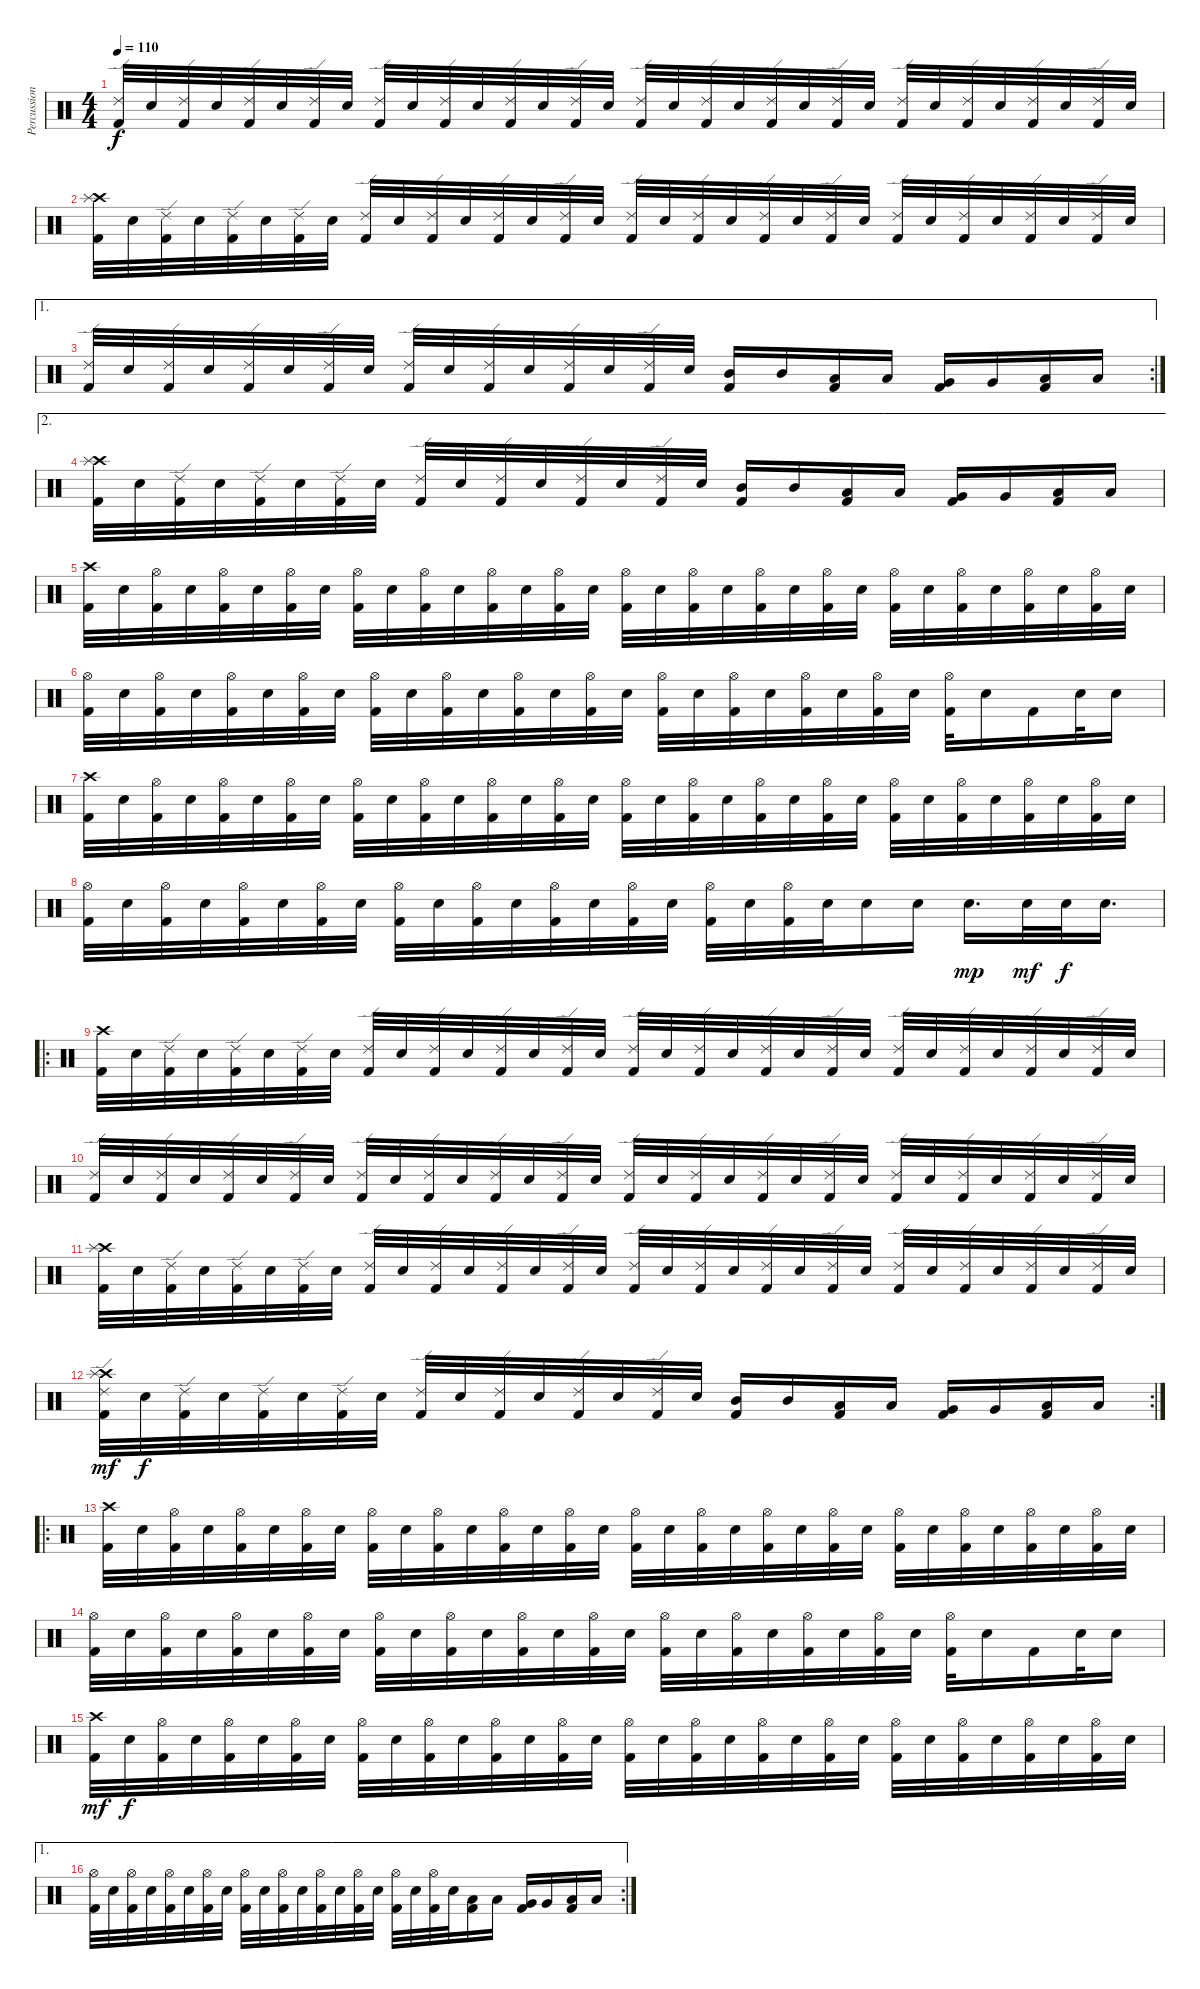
\track ("Percussion" "Percussion") {instrument percussion}
\staff {score}
\articulation defaults
\ts (4 4)
\tempo 110
\clef neutral
\ks c
("Ride (edge) 2" "Kick (hit) 2").32{dy f} "Snare (hit) 2".32 ("Ride (edge) 2" "Kick (hit) 2").32 "Snare (hit) 2".32 ("Ride (edge) 2" "Kick (hit) 2").32 "Snare (hit) 2".32 ("Ride (edge) 2" "Kick (hit) 2").32 "Snare (hit) 2".32 ("Ride (edge) 2" "Kick (hit) 2").32 "Snare (hit) 2".32 ("Ride (edge) 2" "Kick (hit) 2").32 "Snare (hit) 2".32 ("Ride (edge) 2" "Kick (hit) 2").32 "Snare (hit) 2".32 ("Ride (edge) 2" "Kick (hit) 2").32 "Snare (hit) 2".32 ("Ride (edge) 2" "Kick (hit) 2").32 "Snare (hit) 2".32 ("Ride (edge) 2" "Kick (hit) 2").32 "Snare (hit) 2".32 ("Ride (edge) 2" "Kick (hit) 2").32 "Snare (hit) 2".32 ("Ride (edge) 2" "Kick (hit) 2").32 "Snare (hit) 2".32 ("Ride (edge) 2" "Kick (hit) 2").32 "Snare (hit) 2".32 ("Ride (edge) 2" "Kick (hit) 2").32 "Snare (hit) 2".32 ("Ride (edge) 2" "Kick (hit) 2").32 "Snare (hit) 2".32 ("Ride (edge) 2" "Kick (hit) 2").32 "Snare (hit) 2".32 |
("Crash high (hit)" "Splash (hit)" "Kick (hit) 2").32 "Snare (hit) 2".32 ("Ride (edge) 2" "Kick (hit) 2").32 "Snare (hit) 2".32 ("Ride (edge) 2" "Kick (hit) 2").32 "Snare (hit) 2".32 ("Ride (edge) 2" "Kick (hit) 2").32 "Snare (hit) 2".32 ("Ride (edge) 2" "Kick (hit) 2").32 "Snare (hit) 2".32 ("Ride (edge) 2" "Kick (hit) 2").32 "Snare (hit) 2".32 ("Ride (edge) 2" "Kick (hit) 2").32 "Snare (hit) 2".32 ("Ride (edge) 2" "Kick (hit) 2").32 "Snare (hit) 2".32 ("Ride (edge) 2" "Kick (hit) 2").32 "Snare (hit) 2".32 ("Ride (edge) 2" "Kick (hit) 2").32 "Snare (hit) 2".32 ("Ride (edge) 2" "Kick (hit) 2").32 "Snare (hit) 2".32 ("Ride (edge) 2" "Kick (hit) 2").32 "Snare (hit) 2".32 ("Ride (edge) 2" "Kick (hit) 2").32 "Snare (hit) 2".32 ("Ride (edge) 2" "Kick (hit) 2").32 "Snare (hit) 2".32 ("Ride (edge) 2" "Kick (hit) 2").32 "Snare (hit) 2".32 ("Ride (edge) 2" "Kick (hit) 2").32 "Snare (hit) 2".32 |
\ae 1
\rc 2
("Ride (edge) 2" "Kick (hit) 2").32 "Snare (hit) 2".32 ("Ride (edge) 2" "Kick (hit) 2").32 "Snare (hit) 2".32 ("Ride (edge) 2" "Kick (hit) 2").32 "Snare (hit) 2".32 ("Ride (edge) 2" "Kick (hit) 2").32 "Snare (hit) 2".32 ("Ride (edge) 2" "Kick (hit) 2").32 "Snare (hit) 2".32 ("Ride (edge) 2" "Kick (hit) 2").32 "Snare (hit) 2".32 ("Ride (edge) 2" "Kick (hit) 2").32 "Snare (hit) 2".32 ("Ride (edge) 2" "Kick (hit) 2").32 "Snare (hit) 2".32 ("Mid Tom (hit)" "Kick (hit) 2").16 "Mid Tom (hit)".16 ("Low Tom (hit)" "Kick (hit) 2").16 "Low Tom (hit)".16 ("Very Low Tom (hit)" "Kick (hit) 2").16 "Very Low Tom (hit)".16 ("Low Floor Tom (hit)" "Kick (hit) 2").16 "Low Floor Tom (hit)".16 |
\ae 2
("Crash high (hit)" "Splash (hit)" "Kick (hit) 2").32 "Snare (hit) 2".32 ("Ride (edge) 2" "Kick (hit) 2").32 "Snare (hit) 2".32 ("Ride (edge) 2" "Kick (hit) 2").32 "Snare (hit) 2".32 ("Ride (edge) 2" "Kick (hit) 2").32 "Snare (hit) 2".32 ("Ride (edge) 2" "Kick (hit) 2").32 "Snare (hit) 2".32 ("Ride (edge) 2" "Kick (hit) 2").32 "Snare (hit) 2".32 ("Ride (edge) 2" "Kick (hit) 2").32 "Snare (hit) 2".32 ("Ride (edge) 2" "Kick (hit) 2").32 "Snare (hit) 2".32 ("Mid Tom (hit)" "Kick (hit) 2").16 "Mid Tom (hit)".16 ("Low Tom (hit)" "Kick (hit) 2").16 "Low Tom (hit)".16 ("Very Low Tom (hit)" "Kick (hit) 2").16 "Very Low Tom (hit)".16 ("Low Floor Tom (hit)" "Kick (hit) 2").16 "Low Floor Tom (hit)".16 |
("Crash high (hit)" "Kick (hit) 2").32 "Snare (hit) 2".32 ("Hi-Hat (open)" "Kick (hit) 2").32 "Snare (hit) 2".32 ("Hi-Hat (open)" "Kick (hit) 2").32 "Snare (hit) 2".32 ("Hi-Hat (open)" "Kick (hit) 2").32 "Snare (hit) 2".32 ("Hi-Hat (open)" "Kick (hit) 2").32 "Snare (hit) 2".32 ("Hi-Hat (open)" "Kick (hit) 2").32 "Snare (hit) 2".32 ("Hi-Hat (open)" "Kick (hit) 2").32 "Snare (hit) 2".32 ("Hi-Hat (open)" "Kick (hit) 2").32 "Snare (hit) 2".32 ("Hi-Hat (open)" "Kick (hit) 2").32 "Snare (hit) 2".32 ("Hi-Hat (open)" "Kick (hit) 2").32 "Snare (hit) 2".32 ("Hi-Hat (open)" "Kick (hit) 2").32 "Snare (hit) 2".32 ("Hi-Hat (open)" "Kick (hit) 2").32 "Snare (hit) 2".32 ("Hi-Hat (open)" "Kick (hit) 2").32 "Snare (hit) 2".32 ("Hi-Hat (open)" "Kick (hit) 2").32 "Snare (hit) 2".32 ("Hi-Hat (open)" "Kick (hit) 2").32 "Snare (hit) 2".32 ("Hi-Hat (open)" "Kick (hit) 2").32 "Snare (hit) 2".32 |
("Hi-Hat (open)" "Kick (hit) 2").32 "Snare (hit) 2".32 ("Hi-Hat (open)" "Kick (hit) 2").32 "Snare (hit) 2".32 ("Hi-Hat (open)" "Kick (hit) 2").32 "Snare (hit) 2".32 ("Hi-Hat (open)" "Kick (hit) 2").32 "Snare (hit) 2".32 ("Hi-Hat (open)" "Kick (hit) 2").32 "Snare (hit) 2".32 ("Hi-Hat (open)" "Kick (hit) 2").32 "Snare (hit) 2".32 ("Hi-Hat (open)" "Kick (hit) 2").32 "Snare (hit) 2".32 ("Hi-Hat (open)" "Kick (hit) 2").32 "Snare (hit) 2".32 ("Hi-Hat (open)" "Kick (hit) 2").32 "Snare (hit) 2".32 ("Hi-Hat (open)" "Kick (hit) 2").32 "Snare (hit) 2".32 ("Hi-Hat (open)" "Kick (hit) 2").32 "Snare (hit) 2".32 ("Hi-Hat (open)" "Kick (hit) 2").32 "Snare (hit) 2".32 ("Hi-Hat (open)" "Kick (hit) 2").32 "Snare (hit) 2".16 "Kick (hit) 2".16 "Snare (hit) 2".32 "Snare (hit) 2".16 |
("Crash high (hit)" "Kick (hit) 2").32 "Snare (hit) 2".32 ("Hi-Hat (open)" "Kick (hit) 2").32 "Snare (hit) 2".32 ("Hi-Hat (open)" "Kick (hit) 2").32 "Snare (hit) 2".32 ("Hi-Hat (open)" "Kick (hit) 2").32 "Snare (hit) 2".32 ("Hi-Hat (open)" "Kick (hit) 2").32 "Snare (hit) 2".32 ("Hi-Hat (open)" "Kick (hit) 2").32 "Snare (hit) 2".32 ("Hi-Hat (open)" "Kick (hit) 2").32 "Snare (hit) 2".32 ("Hi-Hat (open)" "Kick (hit) 2").32 "Snare (hit) 2".32 ("Hi-Hat (open)" "Kick (hit) 2").32 "Snare (hit) 2".32 ("Hi-Hat (open)" "Kick (hit) 2").32 "Snare (hit) 2".32 ("Hi-Hat (open)" "Kick (hit) 2").32 "Snare (hit) 2".32 ("Hi-Hat (open)" "Kick (hit) 2").32 "Snare (hit) 2".32 ("Hi-Hat (open)" "Kick (hit) 2").32 "Snare (hit) 2".32 ("Hi-Hat (open)" "Kick (hit) 2").32 "Snare (hit) 2".32 ("Hi-Hat (open)" "Kick (hit) 2").32 "Snare (hit) 2".32 ("Hi-Hat (open)" "Kick (hit) 2").32 "Snare (hit) 2".32 |
("Hi-Hat (open)" "Kick (hit) 2").32 "Snare (hit) 2".32 ("Hi-Hat (open)" "Kick (hit) 2").32 "Snare (hit) 2".32 ("Hi-Hat (open)" "Kick (hit) 2").32 "Snare (hit) 2".32 ("Hi-Hat (open)" "Kick (hit) 2").32 "Snare (hit) 2".32 ("Hi-Hat (open)" "Kick (hit) 2").32 "Snare (hit) 2".32 ("Hi-Hat (open)" "Kick (hit) 2").32 "Snare (hit) 2".32 ("Hi-Hat (open)" "Kick (hit) 2").32 "Snare (hit) 2".32 ("Hi-Hat (open)" "Kick (hit) 2").32 "Snare (hit) 2".32 ("Hi-Hat (open)" "Kick (hit) 2").32 "Snare (hit) 2".32 ("Hi-Hat (open)" "Kick (hit) 2").32 "Snare (hit) 2".32 "Snare (hit) 2".16 "Snare (hit) 2".16 "Snare (hit) 2".16{d dy mp} "Snare (hit) 2".32{dy mf} "Snare (hit) 2".32{dy f} "Snare (hit) 2".16{d} |
\ro
("Crash high (hit)" "Kick (hit) 2").32 "Snare (hit) 2".32 ("Ride (edge) 2" "Kick (hit) 2").32 "Snare (hit) 2".32 ("Ride (edge) 2" "Kick (hit) 2").32 "Snare (hit) 2".32 ("Ride (edge) 2" "Kick (hit) 2").32 "Snare (hit) 2".32 ("Ride (edge) 2" "Kick (hit) 2").32 "Snare (hit) 2".32 ("Ride (edge) 2" "Kick (hit) 2").32 "Snare (hit) 2".32 ("Ride (edge) 2" "Kick (hit) 2").32 "Snare (hit) 2".32 ("Ride (edge) 2" "Kick (hit) 2").32 "Snare (hit) 2".32 ("Ride (edge) 2" "Kick (hit) 2").32 "Snare (hit) 2".32 ("Ride (edge) 2" "Kick (hit) 2").32 "Snare (hit) 2".32 ("Ride (edge) 2" "Kick (hit) 2").32 "Snare (hit) 2".32 ("Ride (edge) 2" "Kick (hit) 2").32 "Snare (hit) 2".32 ("Ride (edge) 2" "Kick (hit) 2").32 "Snare (hit) 2".32 ("Ride (edge) 2" "Kick (hit) 2").32 "Snare (hit) 2".32 ("Ride (edge) 2" "Kick (hit) 2").32 "Snare (hit) 2".32 ("Ride (edge) 2" "Kick (hit) 2").32 "Snare (hit) 2".32 |
("Ride (edge) 2" "Kick (hit) 2").32 "Snare (hit) 2".32 ("Ride (edge) 2" "Kick (hit) 2").32 "Snare (hit) 2".32 ("Ride (edge) 2" "Kick (hit) 2").32 "Snare (hit) 2".32 ("Ride (edge) 2" "Kick (hit) 2").32 "Snare (hit) 2".32 ("Ride (edge) 2" "Kick (hit) 2").32 "Snare (hit) 2".32 ("Ride (edge) 2" "Kick (hit) 2").32 "Snare (hit) 2".32 ("Ride (edge) 2" "Kick (hit) 2").32 "Snare (hit) 2".32 ("Ride (edge) 2" "Kick (hit) 2").32 "Snare (hit) 2".32 ("Ride (edge) 2" "Kick (hit) 2").32 "Snare (hit) 2".32 ("Ride (edge) 2" "Kick (hit) 2").32 "Snare (hit) 2".32 ("Ride (edge) 2" "Kick (hit) 2").32 "Snare (hit) 2".32 ("Ride (edge) 2" "Kick (hit) 2").32 "Snare (hit) 2".32 ("Ride (edge) 2" "Kick (hit) 2").32 "Snare (hit) 2".32 ("Ride (edge) 2" "Kick (hit) 2").32 "Snare (hit) 2".32 ("Ride (edge) 2" "Kick (hit) 2").32 "Snare (hit) 2".32 ("Ride (edge) 2" "Kick (hit) 2").32 "Snare (hit) 2".32 |
("Crash high (hit)" "Splash (hit)" "Kick (hit) 2").32 "Snare (hit) 2".32 ("Ride (edge) 2" "Kick (hit) 2").32 "Snare (hit) 2".32 ("Ride (edge) 2" "Kick (hit) 2").32 "Snare (hit) 2".32 ("Ride (edge) 2" "Kick (hit) 2").32 "Snare (hit) 2".32 ("Ride (edge) 2" "Kick (hit) 2").32 "Snare (hit) 2".32 ("Ride (edge) 2" "Kick (hit) 2").32 "Snare (hit) 2".32 ("Ride (edge) 2" "Kick (hit) 2").32 "Snare (hit) 2".32 ("Ride (edge) 2" "Kick (hit) 2").32 "Snare (hit) 2".32 ("Ride (edge) 2" "Kick (hit) 2").32 "Snare (hit) 2".32 ("Ride (edge) 2" "Kick (hit) 2").32 "Snare (hit) 2".32 ("Ride (edge) 2" "Kick (hit) 2").32 "Snare (hit) 2".32 ("Ride (edge) 2" "Kick (hit) 2").32 "Snare (hit) 2".32 ("Ride (edge) 2" "Kick (hit) 2").32 "Snare (hit) 2".32 ("Ride (edge) 2" "Kick (hit) 2").32 "Snare (hit) 2".32 ("Ride (edge) 2" "Kick (hit) 2").32 "Snare (hit) 2".32 ("Ride (edge) 2" "Kick (hit) 2").32 "Snare (hit) 2".32 |
\rc 2
("Crash high (hit)" "Splash (hit)" "Ride (edge) 2" "Kick (hit) 2").32{dy mf} "Snare (hit) 2".32{dy f} ("Ride (edge) 2" "Kick (hit) 2").32 "Snare (hit) 2".32 ("Ride (edge) 2" "Kick (hit) 2").32 "Snare (hit) 2".32 ("Ride (edge) 2" "Kick (hit) 2").32 "Snare (hit) 2".32 ("Ride (edge) 2" "Kick (hit) 2").32 "Snare (hit) 2".32 ("Ride (edge) 2" "Kick (hit) 2").32 "Snare (hit) 2".32 ("Ride (edge) 2" "Kick (hit) 2").32 "Snare (hit) 2".32 ("Ride (edge) 2" "Kick (hit) 2").32 "Snare (hit) 2".32 ("Mid Tom (hit)" "Kick (hit) 2").16 "Mid Tom (hit)".16 ("Low Tom (hit)" "Kick (hit) 2").16 "Low Tom (hit)".16 ("Very Low Tom (hit)" "Kick (hit) 2").16 "Very Low Tom (hit)".16 ("Low Floor Tom (hit)" "Kick (hit) 2").16 "Low Floor Tom (hit)".16 |
\ro
("Crash high (hit)" "Kick (hit) 2").32 "Snare (hit) 2".32 ("Hi-Hat (open)" "Kick (hit) 2").32 "Snare (hit) 2".32 ("Hi-Hat (open)" "Kick (hit) 2").32 "Snare (hit) 2".32 ("Hi-Hat (open)" "Kick (hit) 2").32 "Snare (hit) 2".32 ("Hi-Hat (open)" "Kick (hit) 2").32 "Snare (hit) 2".32 ("Hi-Hat (open)" "Kick (hit) 2").32 "Snare (hit) 2".32 ("Hi-Hat (open)" "Kick (hit) 2").32 "Snare (hit) 2".32 ("Hi-Hat (open)" "Kick (hit) 2").32 "Snare (hit) 2".32 ("Hi-Hat (open)" "Kick (hit) 2").32 "Snare (hit) 2".32 ("Hi-Hat (open)" "Kick (hit) 2").32 "Snare (hit) 2".32 ("Hi-Hat (open)" "Kick (hit) 2").32 "Snare (hit) 2".32 ("Hi-Hat (open)" "Kick (hit) 2").32 "Snare (hit) 2".32 ("Hi-Hat (open)" "Kick (hit) 2").32 "Snare (hit) 2".32 ("Hi-Hat (open)" "Kick (hit) 2").32 "Snare (hit) 2".32 ("Hi-Hat (open)" "Kick (hit) 2").32 "Snare (hit) 2".32 ("Hi-Hat (open)" "Kick (hit) 2").32 "Snare (hit) 2".32 |
("Hi-Hat (open)" "Kick (hit) 2").32 "Snare (hit) 2".32 ("Hi-Hat (open)" "Kick (hit) 2").32 "Snare (hit) 2".32 ("Hi-Hat (open)" "Kick (hit) 2").32 "Snare (hit) 2".32 ("Hi-Hat (open)" "Kick (hit) 2").32 "Snare (hit) 2".32 ("Hi-Hat (open)" "Kick (hit) 2").32 "Snare (hit) 2".32 ("Hi-Hat (open)" "Kick (hit) 2").32 "Snare (hit) 2".32 ("Hi-Hat (open)" "Kick (hit) 2").32 "Snare (hit) 2".32 ("Hi-Hat (open)" "Kick (hit) 2").32 "Snare (hit) 2".32 ("Hi-Hat (open)" "Kick (hit) 2").32 "Snare (hit) 2".32 ("Hi-Hat (open)" "Kick (hit) 2").32 "Snare (hit) 2".32 ("Hi-Hat (open)" "Kick (hit) 2").32 "Snare (hit) 2".32 ("Hi-Hat (open)" "Kick (hit) 2").32 "Snare (hit) 2".32 ("Hi-Hat (open)" "Kick (hit) 2").32 "Snare (hit) 2".16 "Kick (hit) 2".16 "Snare (hit) 2".32 "Snare (hit) 2".16 |
("Crash high (hit)" "Kick (hit) 2").32{dy mf} "Snare (hit) 2".32{dy f} ("Hi-Hat (open)" "Kick (hit) 2").32 "Snare (hit) 2".32 ("Hi-Hat (open)" "Kick (hit) 2").32 "Snare (hit) 2".32 ("Hi-Hat (open)" "Kick (hit) 2").32 "Snare (hit) 2".32 ("Hi-Hat (open)" "Kick (hit) 2").32 "Snare (hit) 2".32 ("Hi-Hat (open)" "Kick (hit) 2").32 "Snare (hit) 2".32 ("Hi-Hat (open)" "Kick (hit) 2").32 "Snare (hit) 2".32 ("Hi-Hat (open)" "Kick (hit) 2").32 "Snare (hit) 2".32 ("Hi-Hat (open)" "Kick (hit) 2").32 "Snare (hit) 2".32 ("Hi-Hat (open)" "Kick (hit) 2").32 "Snare (hit) 2".32 ("Hi-Hat (open)" "Kick (hit) 2").32 "Snare (hit) 2".32 ("Hi-Hat (open)" "Kick (hit) 2").32 "Snare (hit) 2".32 ("Hi-Hat (open)" "Kick (hit) 2").32 "Snare (hit) 2".32 ("Hi-Hat (open)" "Kick (hit) 2").32 "Snare (hit) 2".32 ("Hi-Hat (open)" "Kick (hit) 2").32 "Snare (hit) 2".32 ("Hi-Hat (open)" "Kick (hit) 2").32 "Snare (hit) 2".32 |
\ae 1
\rc 2
("Hi-Hat (open)" "Kick (hit) 2").32 "Snare (hit) 2".32 ("Hi-Hat (open)" "Kick (hit) 2").32 "Snare (hit) 2".32 ("Hi-Hat (open)" "Kick (hit) 2").32 "Snare (hit) 2".32 ("Hi-Hat (open)" "Kick (hit) 2").32 "Snare (hit) 2".32 ("Hi-Hat (open)" "Kick (hit) 2").32 "Snare (hit) 2".32 ("Hi-Hat (open)" "Kick (hit) 2").32 "Snare (hit) 2".32 ("Hi-Hat (open)" "Kick (hit) 2").32 "Snare (hit) 2".32 ("Hi-Hat (open)" "Kick (hit) 2").32 "Snare (hit) 2".32 ("Hi-Hat (open)" "Kick (hit) 2").32 "Snare (hit) 2".32 ("Hi-Hat (open)" "Kick (hit) 2").32 "Snare (hit) 2".32 ("Low Tom (hit)" "Kick (hit) 2").16 "Low Tom (hit)".16 ("Very Low Tom (hit)" "Kick (hit) 2").16 "Very Low Tom (hit)".16 ("Low Floor Tom (hit)" "Kick (hit) 2").16 "Low Floor Tom (hit)".16
